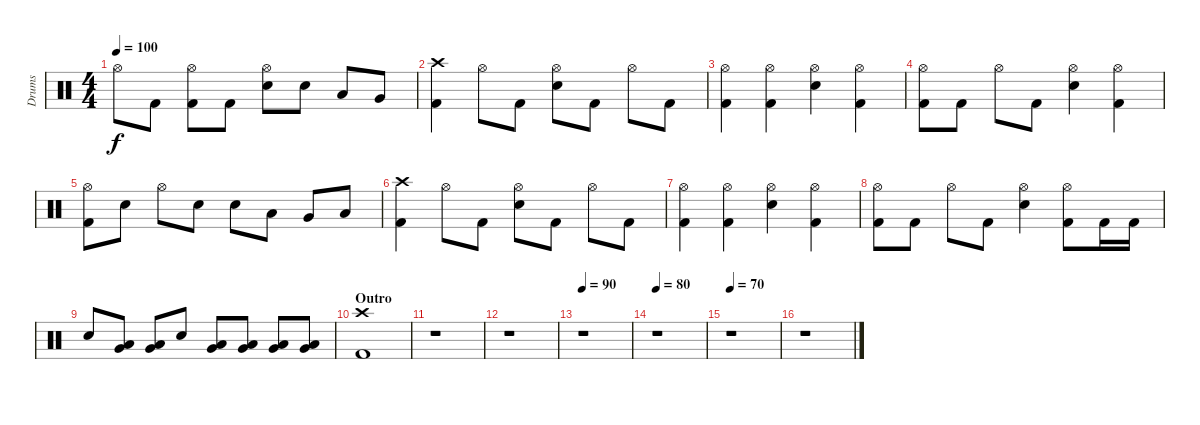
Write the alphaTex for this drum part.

\track ("Drums" "Drums") {instrument percussion}
\staff {score}
\articulation defaults
\ts (4 4)
\tempo 100
\clef neutral
\ks c "Hi-Hat (open)".8{dy f} "Kick (hit) 2".8
("Hi-Hat (open)" "Kick (hit) 2").8 "Kick (hit) 2".8 ("Hi-Hat (open)" "Electric Snare (hit)").8 "Electric Snare (hit)".8 "Low Tom (hit)".8 "Very Low Tom (hit)".8 |
("Crash high (hit)" "Kick (hit) 2").4 "Hi-Hat (open)".8 "Kick (hit) 2".8 ("Hi-Hat (open)" "Electric Snare (hit)").8 "Kick (hit) 2".8 "Hi-Hat (open)".8 "Kick (hit) 2".8 |
("Hi-Hat (open)" "Kick (hit) 2").4 ("Hi-Hat (open)" "Kick (hit) 2").4 ("Hi-Hat (open)" "Electric Snare (hit)").4 ("Hi-Hat (open)" "Kick (hit) 2").4 |
("Hi-Hat (open)" "Kick (hit) 2").8 "Kick (hit) 2".8 "Hi-Hat (open)".8 "Kick (hit) 2".8 ("Hi-Hat (open)" "Electric Snare (hit)").4 ("Hi-Hat (open)" "Kick (hit) 2").4 |
("Hi-Hat (open)" "Kick (hit) 2").8 "Electric Snare (hit)".8 "Hi-Hat (open)".8 "Electric Snare (hit)".8 "Electric Snare (hit)".8 "Low Tom (hit)".8 "Very Low Tom (hit)".8 "Low Floor Tom (hit)".8 |
("Crash high (hit)" "Kick (hit) 2").4 "Hi-Hat (open)".8 "Kick (hit) 2".8 ("Hi-Hat (open)" "Electric Snare (hit)").8 "Kick (hit) 2".8 "Hi-Hat (open)".8 "Kick (hit) 2".8 |
("Hi-Hat (open)" "Kick (hit) 2").4 ("Hi-Hat (open)" "Kick (hit) 2").4 ("Hi-Hat (open)" "Electric Snare (hit)").4 ("Hi-Hat (open)" "Kick (hit) 2").4 |
("Hi-Hat (open)" "Kick (hit) 2").8 "Kick (hit) 2".8 "Hi-Hat (open)".8 "Kick (hit) 2".8 ("Hi-Hat (open)" "Electric Snare (hit)").4 ("Hi-Hat (open)" "Kick (hit) 2").8 "Kick (hit) 2".16 "Kick (hit) 2".16 |
"Electric Snare (hit)".8 ("Low Tom (hit)" "Very Low Tom (hit)").8 ("Low Tom (hit)" "Very Low Tom (hit)").8 "Electric Snare (hit)".8 ("Low Tom (hit)" "Very Low Tom (hit)").8 ("Low Tom (hit)" "Very Low Tom (hit)").8 ("Very Low Tom (hit)" "Low Floor Tom (hit)").8 ("Very Low Tom (hit)" "Low Floor Tom (hit)").8 |
\section ("" "Outro")
("Crash high (hit)" "Kick (hit) 2").1 |
r.1 |
r.1 |
\tempo 90
r.1 |
\tempo 80
r.1 |
\tempo 70
r.1 |
r.1
